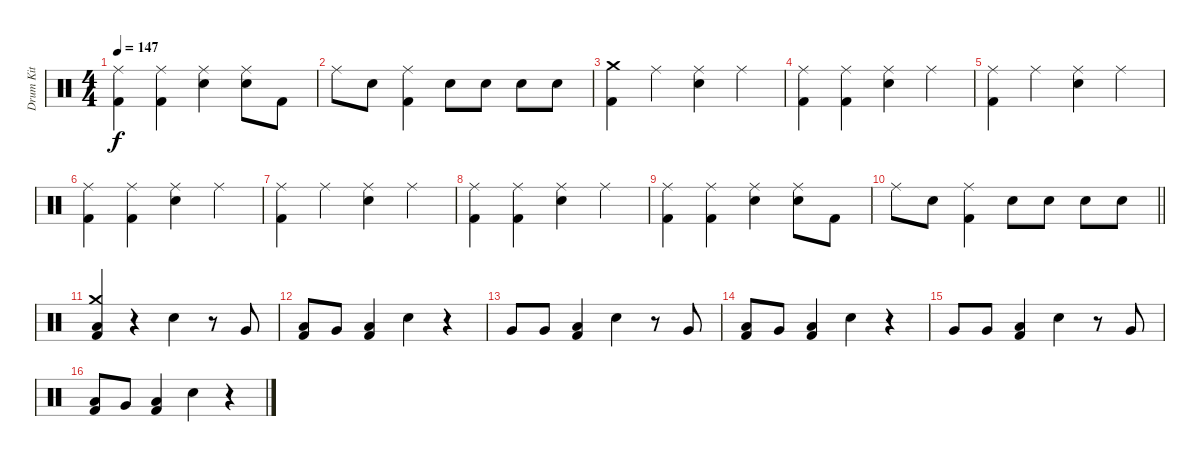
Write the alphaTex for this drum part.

\track ("Drum Kit" "Drum Kit") {instrument percussion}
\staff {score}
\articulation defaults
\ts (4 4)
\tempo 147
\clef neutral
\ks c
("Ride (middle)" "Kick (hit) 2").4{dy f} ("Ride (middle)" "Kick (hit) 2").4 ("Ride (middle)" "Snare (hit) 2").4 ("Ride (middle)" "Snare (hit) 2").8 "Kick (hit) 2".8 |
"Ride (middle)".8 "Snare (hit) 2".8 ("Ride (middle)" "Kick (hit) 2").4 "Snare (hit) 2".8 "Snare (hit) 2".8 "Snare (hit) 2".8 "Snare (hit) 2".8 |
("Crash medium (hit)" "Kick (hit) 2").4 "Ride (middle)".4 ("Ride (middle)" "Snare (hit) 2").4 "Ride (middle)".4 |
("Ride (middle)" "Kick (hit) 2").4 ("Ride (middle)" "Kick (hit) 2").4 ("Ride (middle)" "Snare (hit) 2").4 "Ride (middle)".4 |
("Ride (middle)" "Kick (hit) 2").4 "Ride (middle)".4 ("Ride (middle)" "Snare (hit) 2").4 "Ride (middle)".4 |
("Ride (middle)" "Kick (hit) 2").4 ("Ride (middle)" "Kick (hit) 2").4 ("Ride (middle)" "Snare (hit) 2").4 "Ride (middle)".4 |
("Ride (middle)" "Kick (hit) 2").4 "Ride (middle)".4 ("Ride (middle)" "Snare (hit) 2").4 "Ride (middle)".4 |
("Ride (middle)" "Kick (hit) 2").4 ("Ride (middle)" "Kick (hit) 2").4 ("Ride (middle)" "Snare (hit) 2").4 "Ride (middle)".4 |
("Ride (middle)" "Kick (hit) 2").4 ("Ride (middle)" "Kick (hit) 2").4 ("Ride (middle)" "Snare (hit) 2").4 ("Ride (middle)" "Snare (hit) 2").8 "Kick (hit) 2".8 |
\barLineRight lightlight "Ride (middle)".8 "Snare (hit) 2".8
("Ride (middle)" "Kick (hit) 2").4 "Snare (hit) 2".8 "Snare (hit) 2".8 "Snare (hit) 2".8 "Snare (hit) 2".8 |
("Crash medium (hit)" "Low Floor Tom (hit)" "Kick (hit) 2").4 r.4 "Snare (hit) 2".4 r.8 "Very Low Tom (hit)".8 |
("Low Floor Tom (hit)" "Kick (hit) 2").8 "Very Low Tom (hit)".8 ("Low Floor Tom (hit)" "Kick (hit) 2").4 "Snare (hit) 2".4 r.4 |
"Very Low Tom (hit)".8 "Very Low Tom (hit)".8 ("Low Floor Tom (hit)" "Kick (hit) 2").4 "Snare (hit) 2".4 r.8 "Very Low Tom (hit)".8 |
("Low Floor Tom (hit)" "Kick (hit) 2").8 "Very Low Tom (hit)".8 ("Low Floor Tom (hit)" "Kick (hit) 2").4 "Snare (hit) 2".4 r.4 |
"Very Low Tom (hit)".8 "Very Low Tom (hit)".8 ("Low Floor Tom (hit)" "Kick (hit) 2").4 "Snare (hit) 2".4 r.8 "Very Low Tom (hit)".8 |
("Low Floor Tom (hit)" "Kick (hit) 2").8 "Very Low Tom (hit)".8 ("Low Floor Tom (hit)" "Kick (hit) 2").4 "Snare (hit) 2".4 r.4
